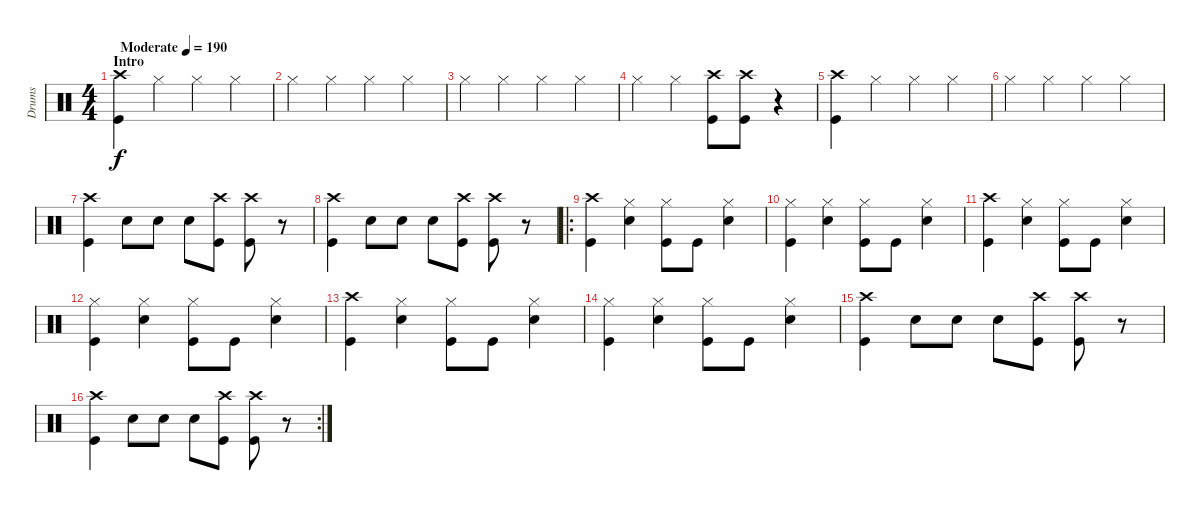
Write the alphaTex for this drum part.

\track ("Drums" "Drums") {instrument percussion}
\staff {score}
\articulation defaults
\ts (4 4)
\section ("" "Intro")
\tempo (190 "Moderate")
\clef neutral
\ks c
("Crash high (hit)" "Kick (hit)").4{dy f} "Hi-Hat (closed)".4 "Hi-Hat (closed)".4 "Hi-Hat (closed)".4 |
"Hi-Hat (closed)".4 "Hi-Hat (closed)".4 "Hi-Hat (closed)".4 "Hi-Hat (closed)".4 |
"Hi-Hat (closed)".4 "Hi-Hat (closed)".4 "Hi-Hat (closed)".4 "Hi-Hat (closed)".4 |
"Hi-Hat (closed)".4 "Hi-Hat (closed)".4 ("Crash high (hit)" "Kick (hit)").8 ("Crash high (hit)" "Kick (hit)").8 r.4 |
("Crash high (hit)" "Kick (hit)").4 "Hi-Hat (closed)".4 "Hi-Hat (closed)".4 "Hi-Hat (closed)".4 |
"Hi-Hat (closed)".4 "Hi-Hat (closed)".4 "Hi-Hat (closed)".4 "Hi-Hat (closed)".4 |
("Crash high (hit)" "Kick (hit)").4 "Snare (hit) 2".8 "Snare (hit) 2".8 "Snare (hit) 2".8 ("Crash high (hit)" "Kick (hit)").8 ("Crash high (hit)" "Kick (hit)").8 r.8 |
("Crash high (hit)" "Kick (hit)").4 "Snare (hit) 2".8 "Snare (hit) 2".8 "Snare (hit) 2".8 ("Crash high (hit)" "Kick (hit)").8 ("Crash high (hit)" "Kick (hit)").8 r.8 |
\ro
("Crash high (hit)" "Kick (hit)").4 ("Hi-Hat (closed)" "Snare (hit) 2").4 ("Hi-Hat (closed)" "Kick (hit)").8 "Kick (hit)".8 ("Hi-Hat (closed)" "Snare (hit) 2").4 |
("Hi-Hat (closed)" "Kick (hit)").4 ("Hi-Hat (closed)" "Snare (hit) 2").4 ("Hi-Hat (closed)" "Kick (hit)").8 "Kick (hit)".8 ("Hi-Hat (closed)" "Snare (hit) 2").4 |
("Crash high (hit)" "Kick (hit)").4 ("Hi-Hat (closed)" "Snare (hit) 2").4 ("Hi-Hat (closed)" "Kick (hit)").8 "Kick (hit)".8 ("Hi-Hat (closed)" "Snare (hit) 2").4 |
("Hi-Hat (closed)" "Kick (hit)").4 ("Hi-Hat (closed)" "Snare (hit) 2").4 ("Hi-Hat (closed)" "Kick (hit)").8 "Kick (hit)".8 ("Hi-Hat (closed)" "Snare (hit) 2").4 |
("Crash high (hit)" "Kick (hit)").4 ("Hi-Hat (closed)" "Snare (hit) 2").4 ("Hi-Hat (closed)" "Kick (hit)").8 "Kick (hit)".8 ("Hi-Hat (closed)" "Snare (hit) 2").4 |
("Hi-Hat (closed)" "Kick (hit)").4 ("Hi-Hat (closed)" "Snare (hit) 2").4 ("Hi-Hat (closed)" "Kick (hit)").8 "Kick (hit)".8 ("Hi-Hat (closed)" "Snare (hit) 2").4 |
("Crash high (hit)" "Kick (hit)").4 "Snare (hit) 2".8 "Snare (hit) 2".8 "Snare (hit) 2".8 ("Crash high (hit)" "Kick (hit)").8 ("Crash high (hit)" "Kick (hit)").8 r.8 |
\rc 2
("Crash high (hit)" "Kick (hit)").4 "Snare (hit) 2".8 "Snare (hit) 2".8 "Snare (hit) 2".8 ("Crash high (hit)" "Kick (hit)").8 ("Crash high (hit)" "Kick (hit)").8 r.8
